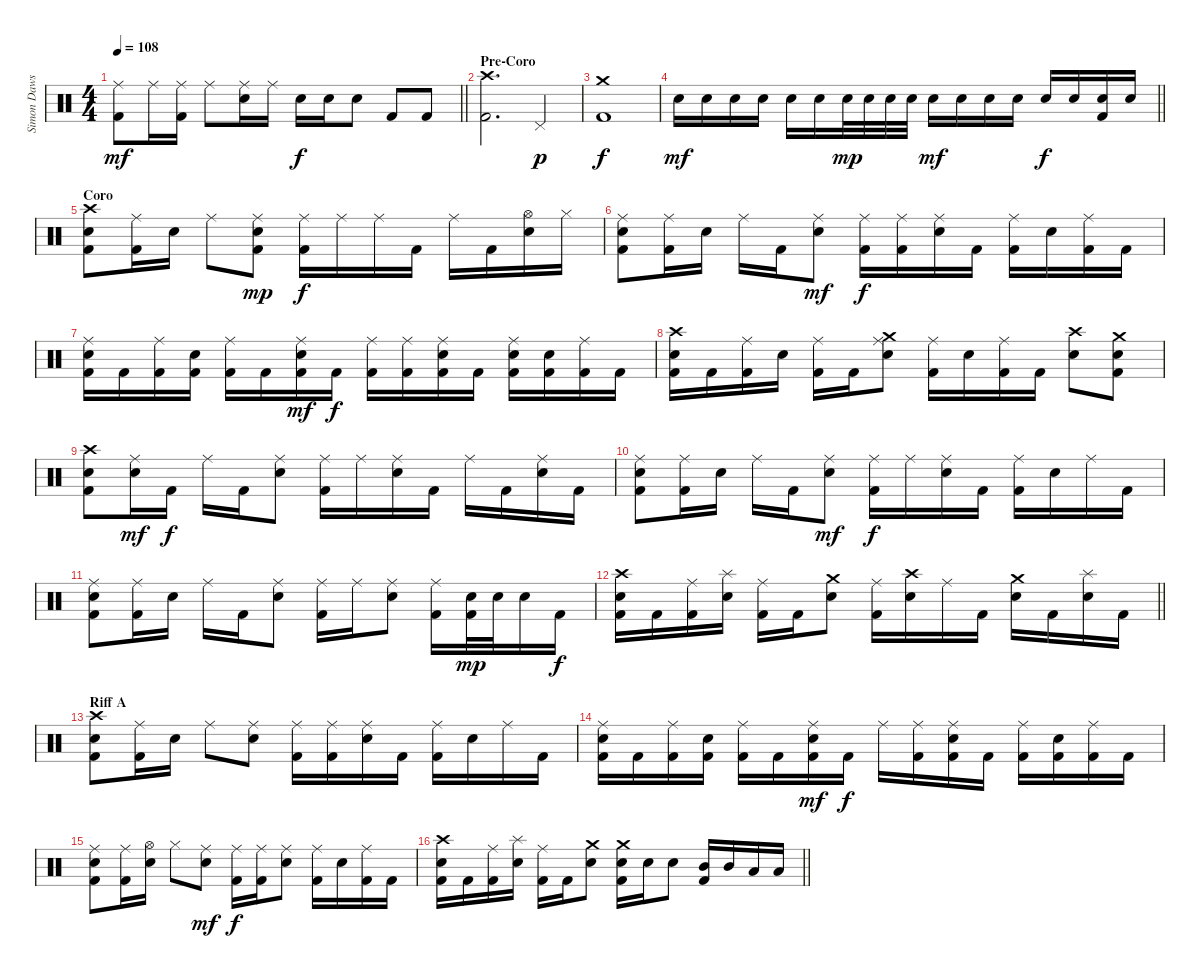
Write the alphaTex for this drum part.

\track ("Simon Dawson" "Simon Daws") {instrument percussion}
\staff {score}
\articulation defaults
\ts (4 4)
\tempo 108
\clef neutral
\barLineRight lightlight
\ks c
("Ride (middle)" "Kick (hit) 2").8{dy mf} "Ride (middle)".16 ("Ride (middle)" "Kick (hit) 2").16 "Ride (middle)".8 ("Ride (middle)" "Snare (hit) 2").16 "Ride (middle)".16 "Snare (hit) 2".16{dy f} "Snare (hit) 2".16 "Snare (hit) 2".8 "Kick (hit) 2".8 "Kick (hit) 2".8 |
\section ("" "Pre-Coro")
("Crash high (hit)" "Kick (hit) 2").2{d} "Pedal Hi-Hat (hit)".4{dy p} |
("Crash medium (hit)" "Kick (hit) 2").1{dy f} |
\barLineRight lightlight "Snare (hit) 2".16{dy mf} "Snare (hit) 2".16 "Snare (hit) 2".16 "Snare (hit) 2".16 "Snare (hit) 2".16 "Snare (hit) 2".16 "Snare (hit) 2".32{dy mp} "Snare (hit) 2".32 "Snare (hit) 2".32 "Snare (hit) 2".32 "Snare (hit) 2".16{dy mf} "Snare (hit) 2".16 "Snare (hit) 2".16 "Snare (hit) 2".16 "Snare (hit) 2".16{dy f} "Snare (hit) 2".16
("Snare (hit) 2" "Kick (hit) 2").16 "Snare (hit) 2".16 |
\section ("" "Coro")
("Snare (hit) 2" "Crash high (hit)" "Kick (hit) 2").8 ("Ride (middle)" "Kick (hit) 2").16 "Snare (hit) 2".16 "Ride (middle)".8 ("Ride (middle)" "Snare (hit) 2" "Kick (hit) 2").8{dy mp} ("Ride (middle)" "Kick (hit) 2").16{dy f} "Ride (middle)".16 "Ride (middle)".16 "Kick (hit) 2".16 "Ride (middle)".16 "Kick (hit) 2".16 ("Hi-Hat (open)" "Snare (hit) 2").16 "Hi-Hat (closed)".16 |
("Ride (middle)" "Snare (hit) 2" "Kick (hit) 2").8 ("Ride (middle)" "Kick (hit) 2").16 "Snare (hit) 2".16 "Ride (middle)".16 "Kick (hit) 2".16 ("Ride (middle)" "Snare (hit) 2").8{dy mf} ("Ride (middle)" "Kick (hit) 2").16{dy f} ("Ride (middle)" "Kick (hit) 2").16 ("Ride (middle)" "Snare (hit) 2").16 "Kick (hit) 2".16 ("Ride (middle)" "Kick (hit) 2").16 "Snare (hit) 2".16 ("Ride (middle)" "Kick (hit) 2").16 "Kick (hit) 2".16 |
("Ride (middle)" "Snare (hit) 2" "Kick (hit) 2").16 "Kick (hit) 2".16 ("Ride (middle)" "Kick (hit) 2").16 ("Snare (hit) 2" "Kick (hit) 2").16 ("Ride (middle)" "Kick (hit) 2").16 "Kick (hit) 2".16 ("Ride (middle)" "Snare (hit) 2" "Kick (hit) 2").16{dy mf} "Kick (hit) 2".16{dy f} ("Ride (middle)" "Kick (hit) 2").16 ("Ride (middle)" "Kick (hit) 2").16 ("Ride (middle)" "Snare (hit) 2" "Kick (hit) 2").16 "Kick (hit) 2".16 ("Ride (middle)" "Snare (hit) 2" "Kick (hit) 2").16 ("Snare (hit) 2" "Kick (hit) 2").16 ("Ride (middle)" "Kick (hit) 2").16 "Kick (hit) 2".16 |
("Snare (hit) 2" "Crash high (hit)" "Kick (hit) 2").16 "Kick (hit) 2".16 ("Ride (middle)" "Kick (hit) 2").16 "Snare (hit) 2".16 ("Ride (middle)" "Kick (hit) 2").16 "Kick (hit) 2".16 ("Ride (middle)" "Snare (hit) 2" "Crash medium (hit)").8 ("Ride (middle)" "Kick (hit) 2").16 "Snare (hit) 2".16 ("Ride (middle)" "Kick (hit) 2").16 "Kick (hit) 2".16 ("Snare (hit) 2" "Crash high (hit)").8 ("Snare (hit) 2" "Crash medium (hit)" "Kick (hit) 2").8 |
("Snare (hit) 2" "Crash high (hit)" "Kick (hit) 2").8 ("Ride (middle)" "Snare (hit) 2").16{dy mf} "Kick (hit) 2".16{dy f} "Ride (middle)".16 "Kick (hit) 2".16 ("Ride (middle)" "Snare (hit) 2").8 ("Ride (middle)" "Kick (hit) 2").16 "Ride (middle)".16 ("Ride (middle)" "Snare (hit) 2").16 "Kick (hit) 2".16 "Ride (middle)".16 "Kick (hit) 2".16 ("Ride (middle)" "Snare (hit) 2").16 "Kick (hit) 2".16 |
("Ride (middle)" "Snare (hit) 2" "Kick (hit) 2").8 ("Ride (middle)" "Kick (hit) 2").16 "Snare (hit) 2".16 "Ride (middle)".16 "Kick (hit) 2".16 ("Ride (middle)" "Snare (hit) 2").8{dy mf} ("Ride (middle)" "Kick (hit) 2").16{dy f} "Ride (middle)".16 ("Ride (middle)" "Snare (hit) 2").16 "Kick (hit) 2".16 ("Ride (middle)" "Kick (hit) 2").16 "Snare (hit) 2".16 "Ride (middle)".16 "Kick (hit) 2".16 |
("Ride (middle)" "Snare (hit) 2" "Kick (hit) 2").8 ("Ride (middle)" "Kick (hit) 2").16 "Snare (hit) 2".16 "Ride (middle)".16 "Kick (hit) 2".16 ("Ride (middle)" "Snare (hit) 2").8 ("Ride (middle)" "Kick (hit) 2").16 "Ride (middle)".16 ("Ride (middle)" "Snare (hit) 2").8 ("Ride (middle)" "Kick (hit) 2").16 ("Snare (hit) 2" "Kick (hit) 2").32{dy mp} "Snare (hit) 2".32 "Snare (hit) 2".16 "Kick (hit) 2".16{dy f} |
\barLineRight lightlight
("Snare (hit) 2" "Crash high (hit)" "Kick (hit) 2").16 "Kick (hit) 2".16 ("Ride (middle)" "Kick (hit) 2").16 ("Snare (hit) 2" "Splash (hit)").16 ("Ride (middle)" "Kick (hit) 2").16 "Kick (hit) 2".16 ("Snare (hit) 2" "Crash medium (hit)").8 ("Ride (middle)" "Kick (hit) 2").16 ("Snare (hit) 2" "Crash high (hit)").16 "Ride (middle)".16 "Kick (hit) 2".16 ("Snare (hit) 2" "Crash medium (hit)").16 "Kick (hit) 2".16 ("Snare (hit) 2" "Splash (hit)").16 "Kick (hit) 2".16 |
\section ("" "Riff A")
("Snare (hit) 2" "Crash high (hit)" "Kick (hit) 2").8 ("Ride (middle)" "Kick (hit) 2").16 "Snare (hit) 2".16 "Ride (middle)".8 ("Ride (middle)" "Snare (hit) 2").8 ("Ride (middle)" "Kick (hit) 2").16 ("Ride (middle)" "Kick (hit) 2").16 ("Ride (middle)" "Snare (hit) 2").16 "Kick (hit) 2".16 ("Ride (middle)" "Kick (hit) 2").16 "Snare (hit) 2".16 "Ride (middle)".16 "Kick (hit) 2".16 |
("Ride (middle)" "Snare (hit) 2" "Kick (hit) 2").16 "Kick (hit) 2".16 ("Ride (middle)" "Kick (hit) 2").16 ("Snare (hit) 2" "Kick (hit) 2").16 ("Ride (middle)" "Kick (hit) 2").16 "Kick (hit) 2".16 ("Ride (middle)" "Snare (hit) 2" "Kick (hit) 2").16{dy mf} "Kick (hit) 2".16{dy f} "Ride (middle)".16 ("Ride (middle)" "Kick (hit) 2").16 ("Ride (middle)" "Snare (hit) 2" "Kick (hit) 2").16 "Kick (hit) 2".16 ("Ride (middle)" "Kick (hit) 2").16 ("Snare (hit) 2" "Kick (hit) 2").16 ("Ride (middle)" "Kick (hit) 2").16 "Kick (hit) 2".16 |
("Ride (middle)" "Snare (hit) 2" "Kick (hit) 2").8 ("Ride (middle)" "Kick (hit) 2").16 ("Hi-Hat (open)" "Snare (hit) 2").16 "Hi-Hat (closed)".8 ("Ride (middle)" "Snare (hit) 2").8{dy mf} ("Ride (middle)" "Kick (hit) 2").16{dy f} ("Ride (middle)" "Kick (hit) 2").16 ("Ride (middle)" "Snare (hit) 2").8 ("Ride (middle)" "Kick (hit) 2").16 "Snare (hit) 2".16 ("Ride (middle)" "Kick (hit) 2").16 "Kick (hit) 2".16 |
\barLineRight lightlight
("Snare (hit) 2" "Crash high (hit)" "Kick (hit) 2").16 "Kick (hit) 2".16 ("Ride (middle)" "Kick (hit) 2").16 ("Snare (hit) 2" "Splash (hit)").16 ("Ride (middle)" "Kick (hit) 2").16 "Kick (hit) 2".16 ("Snare (hit) 2" "Crash medium (hit)").8 ("Snare (hit) 2" "Crash medium (hit)" "Kick (hit) 2").16 "Snare (hit) 2".16 "Snare (hit) 2".8 ("Mid Tom (hit)" "Kick (hit) 2").16 "Mid Tom (hit)".16 "Low Tom (hit)".16 "Low Tom (hit)".16
